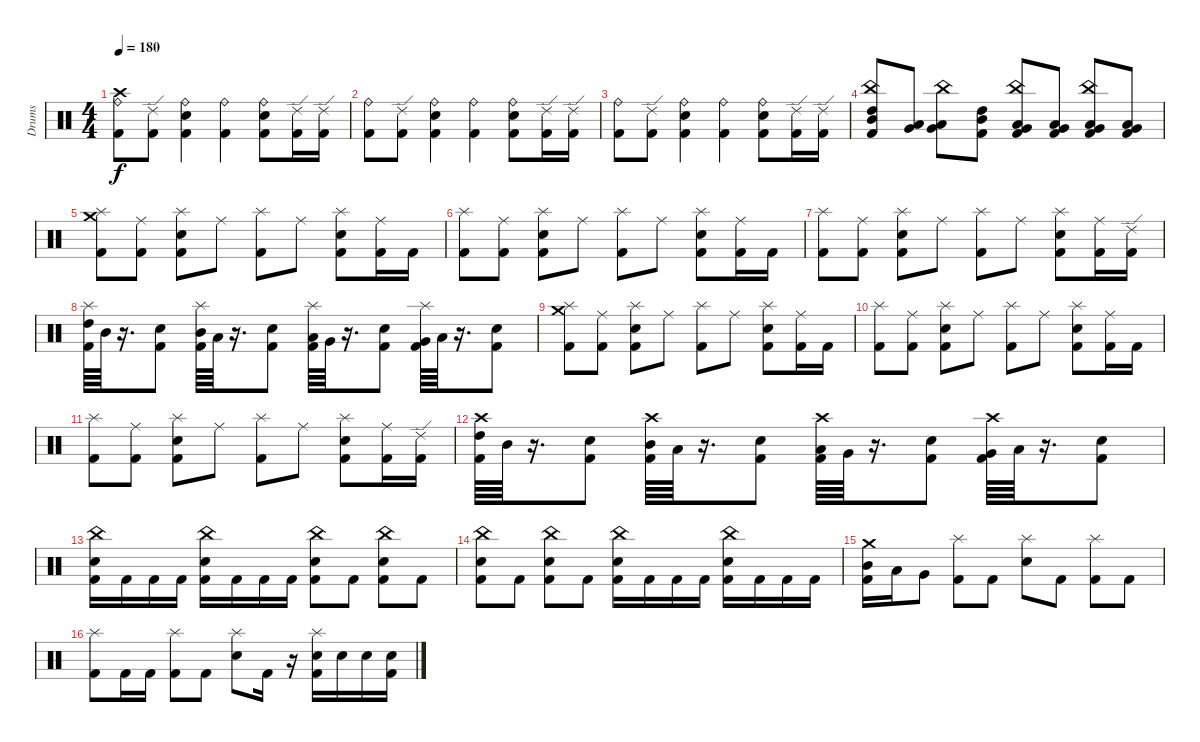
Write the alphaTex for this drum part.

\track ("Drums" "Drums") {instrument percussion}
\staff {score}
\articulation defaults
\ts (4 4)
\tempo 180
\clef neutral
\ks c
("Ride (bell)" "Crash high (hit)" "Kick (hit) 2").8{dy f} ("Ride (edge) 2" "Kick (hit) 2").8 ("Ride (bell)" "Snare (hit) 2" "Kick (hit) 2").4 ("Ride (bell)" "Kick (hit) 2").4 ("Ride (bell)" "Snare (hit) 2" "Kick (hit) 2").8 ("Ride (edge) 2" "Kick (hit) 2").16 ("Ride (edge) 2" "Kick (hit) 2").16 |
("Ride (bell)" "Kick (hit) 2").8 ("Ride (edge) 2" "Kick (hit) 2").8 ("Ride (bell)" "Snare (hit) 2" "Kick (hit) 2").4 ("Ride (bell)" "Kick (hit) 2").4 ("Ride (bell)" "Snare (hit) 2" "Kick (hit) 2").8 ("Ride (edge) 2" "Kick (hit) 2").16 ("Ride (edge) 2" "Kick (hit) 2").16 |
("Ride (bell)" "Kick (hit) 2").8 ("Ride (edge) 2" "Kick (hit) 2").8 ("Ride (bell)" "Snare (hit) 2" "Kick (hit) 2").4 ("Ride (bell)" "Kick (hit) 2").4 ("Ride (bell)" "Snare (hit) 2" "Kick (hit) 2").8 ("Ride (edge) 2" "Kick (hit) 2").16 ("Ride (edge) 2" "Kick (hit) 2").16 |
("China (hit)" "High Tom (hit)" "Mid Tom (hit)" "Kick (hit) 2").8 ("Low Tom (hit)" "Very Low Tom (hit)").8 ("China (hit)" "Low Tom (hit)" "Very Low Tom (hit)").8 ("High Tom (hit)" "Mid Tom (hit)" "Kick (hit) 2").8 ("China (hit)" "Low Tom (hit)" "Very Low Tom (hit)" "Kick (hit) 2").8 ("Low Tom (hit)" "Very Low Tom (hit)" "Kick (hit) 2").8 ("China (hit)" "Low Floor Tom (hit)" "Very Low Tom (hit)" "Kick (hit) 2").8 ("Low Tom (hit)" "Very Low Tom (hit)" "Kick (hit) 2").8 |
("Splash (hit)" "Crash medium (hit)" "Kick (hit) 2").8 ("Ride (middle)" "Kick (hit) 2").8 ("Splash (hit)" "Snare (hit) 2" "Kick (hit) 2").8 "Ride (middle)".8 ("Splash (hit)" "Kick (hit) 2").8 "Ride (middle)".8 ("Splash (hit)" "Snare (hit) 2" "Kick (hit) 2").8 ("Ride (middle)" "Kick (hit) 2").16 "Kick (hit) 2".16 |
("Splash (hit)" "Kick (hit) 2").8 ("Ride (middle)" "Kick (hit) 2").8 ("Splash (hit)" "Snare (hit) 2" "Kick (hit) 2").8 "Ride (middle)".8 ("Splash (hit)" "Kick (hit) 2").8 "Ride (middle)".8 ("Splash (hit)" "Snare (hit) 2" "Kick (hit) 2").8 ("Ride (middle)" "Kick (hit) 2").16 "Kick (hit) 2".16 |
("Splash (hit)" "Kick (hit) 2").8 ("Ride (middle)" "Kick (hit) 2").8 ("Splash (hit)" "Snare (hit) 2" "Kick (hit) 2").8 "Ride (middle)".8 ("Splash (hit)" "Kick (hit) 2").8 "Ride (middle)".8 ("Splash (hit)" "Snare (hit) 2" "Kick (hit) 2").8 ("Ride (middle)" "Kick (hit) 2").16 ("Ride (edge) 2" "Kick (hit) 2").16 |
("Splash (hit)" "High Tom (hit)" "Kick (hit) 2").64 "Mid Tom (hit)".64 r.16{d} ("Snare (hit) 2" "Kick (hit) 2").8 ("Splash (hit)" "Mid Tom (hit)" "Kick (hit) 2").64 "Low Tom (hit)".64 r.16{d} ("Snare (hit) 2" "Kick (hit) 2").8 ("Splash (hit)" "Low Tom (hit)" "Kick (hit) 2").64 "Very Low Tom (hit)".64 r.16{d} ("Snare (hit) 2" "Kick (hit) 2").8 ("Splash (hit)" "Very Low Tom (hit)" "Kick (hit) 2").64 "Low Floor Tom (hit)".64 r.16{d} ("Snare (hit) 2" "Kick (hit) 2").8 |
("Splash (hit)" "Crash medium (hit)" "Kick (hit) 2").8 ("Ride (middle)" "Kick (hit) 2").8 ("Splash (hit)" "Snare (hit) 2" "Kick (hit) 2").8 "Ride (middle)".8 ("Splash (hit)" "Kick (hit) 2").8 "Ride (middle)".8 ("Splash (hit)" "Snare (hit) 2" "Kick (hit) 2").8 ("Ride (middle)" "Kick (hit) 2").16 "Kick (hit) 2".16 |
("Splash (hit)" "Kick (hit) 2").8 ("Ride (middle)" "Kick (hit) 2").8 ("Splash (hit)" "Snare (hit) 2" "Kick (hit) 2").8 "Ride (middle)".8 ("Splash (hit)" "Kick (hit) 2").8 "Ride (middle)".8 ("Splash (hit)" "Snare (hit) 2" "Kick (hit) 2").8 ("Ride (middle)" "Kick (hit) 2").16 "Kick (hit) 2".16 |
("Splash (hit)" "Kick (hit) 2").8 ("Ride (middle)" "Kick (hit) 2").8 ("Splash (hit)" "Snare (hit) 2" "Kick (hit) 2").8 "Ride (middle)".8 ("Splash (hit)" "Kick (hit) 2").8 "Ride (middle)".8 ("Splash (hit)" "Snare (hit) 2" "Kick (hit) 2").8 ("Ride (middle)" "Kick (hit) 2").16 ("Ride (edge) 2" "Kick (hit) 2").16 |
("Crash high (hit)" "High Tom (hit)" "Kick (hit) 2").64 "Mid Tom (hit)".64 r.16{d} ("Snare (hit) 2" "Kick (hit) 2").8 ("Crash high (hit)" "Mid Tom (hit)" "Kick (hit) 2").64 "Low Tom (hit)".64 r.16{d} ("Snare (hit) 2" "Kick (hit) 2").8 ("Crash high (hit)" "Low Tom (hit)" "Kick (hit) 2").64 "Very Low Tom (hit)".64 r.16{d} ("Snare (hit) 2" "Kick (hit) 2").8 ("Crash high (hit)" "Very Low Tom (hit)" "Kick (hit) 2").64 "Low Floor Tom (hit)".64 r.16{d} ("Snare (hit) 2" "Kick (hit) 2").8 |
("China (hit)" "Snare (hit) 2" "Kick (hit) 2").16 "Kick (hit) 2".16 "Kick (hit) 2".16 "Kick (hit) 2".16 ("China (hit)" "Snare (hit) 2" "Kick (hit) 2").16 "Kick (hit) 2".16 "Kick (hit) 2".16 "Kick (hit) 2".16 ("China (hit)" "Snare (hit) 2" "Kick (hit) 2").8 "Kick (hit) 2".8 ("China (hit)" "Snare (hit) 2" "Kick (hit) 2").8 "Kick (hit) 2".8 |
("China (hit)" "Snare (hit) 2" "Kick (hit) 2").8 "Kick (hit) 2".8 ("China (hit)" "Snare (hit) 2" "Kick (hit) 2").8 "Kick (hit) 2".8 ("China (hit)" "Snare (hit) 2" "Kick (hit) 2").16 "Kick (hit) 2".16 "Kick (hit) 2".16 "Kick (hit) 2".16 ("China (hit)" "Snare (hit) 2" "Kick (hit) 2").16 "Kick (hit) 2".16 "Kick (hit) 2".16 "Kick (hit) 2".16 |
("Crash medium (hit)" "Mid Tom (hit)" "Kick (hit) 2").16 "Low Tom (hit)".16 "Very Low Tom (hit)".8 ("Splash (hit)" "Kick (hit) 2").8 "Kick (hit) 2".8 ("Splash (hit)" "Snare (hit) 2").8 "Kick (hit) 2".8 ("Splash (hit)" "Kick (hit) 2").8 "Kick (hit) 2".8 |
("Splash (hit)" "Kick (hit) 2").8 "Kick (hit) 2".16 "Kick (hit) 2".16 ("Splash (hit)" "Kick (hit) 2").8 "Kick (hit) 2".8 ("Splash (hit)" "Snare (hit) 2").8 "Kick (hit) 2".16 r.16 ("Splash (hit)" "Snare (hit) 2" "Kick (hit) 2").16 "Snare (hit) 2".16 "Snare (hit) 2".16 ("Snare (hit) 2" "Kick (hit) 2").16
